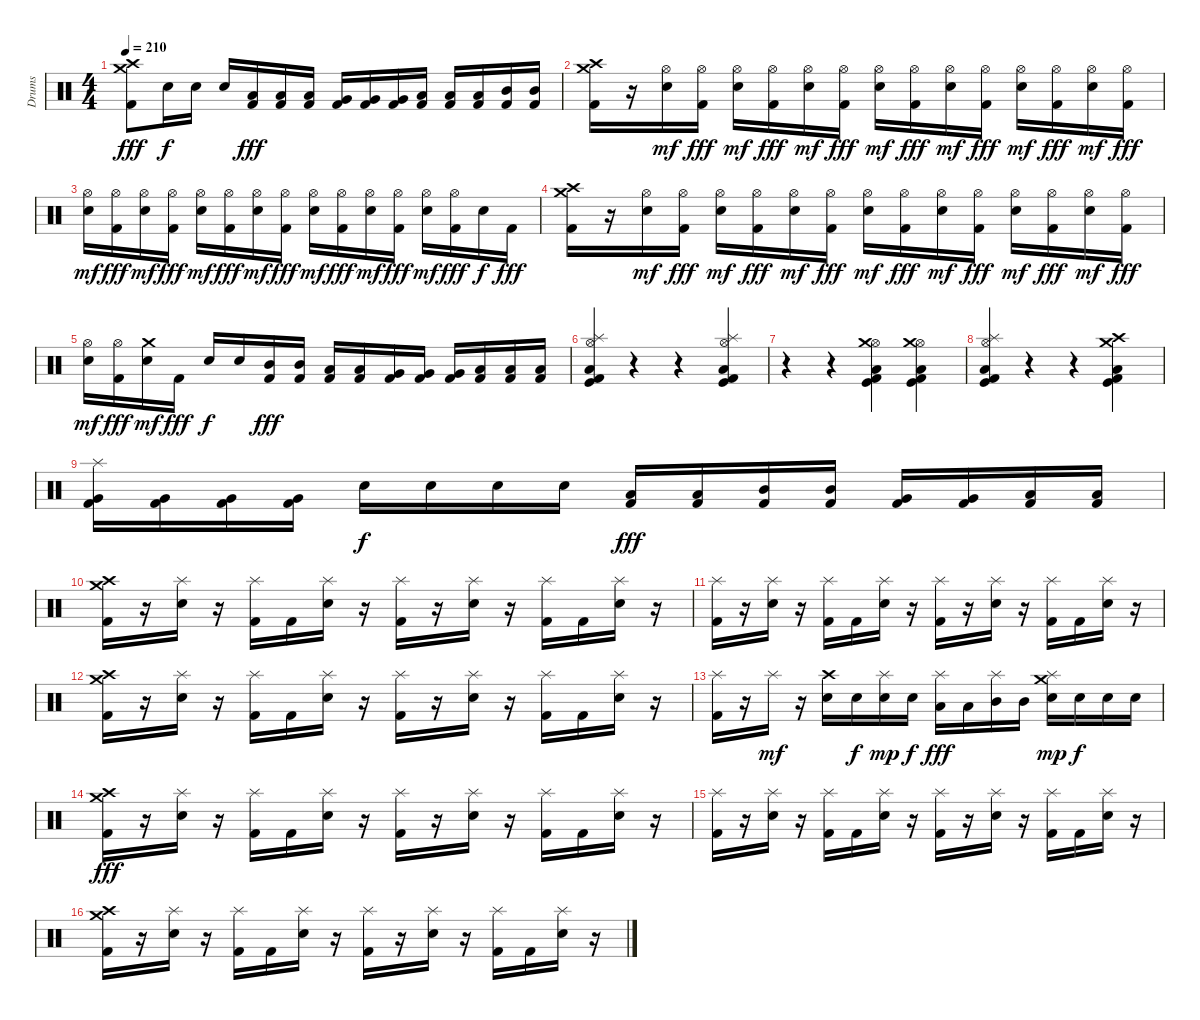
\track ("Drums" "Drums") {instrument percussion}
\staff {score}
\articulation defaults
\ts (4 4)
\tempo 210
\clef neutral
\ks c
("Crash medium (hit)" "Crash high (hit)" "Kick (hit) 2").8{dy fff} "Electric Snare (hit)".16{dy f} "Electric Snare (hit)".16 "Electric Snare (hit)".16 ("Low Floor Tom (hit)" "Kick (hit) 2").16{dy fff} ("Low Floor Tom (hit)" "Kick (hit) 2").16 ("Low Floor Tom (hit)" "Kick (hit) 2").16 ("Very Low Tom (hit)" "Kick (hit) 2").16 ("Very Low Tom (hit)" "Kick (hit) 2").16 ("Very Low Tom (hit)" "Kick (hit) 2").16 ("Low Tom (hit)" "Kick (hit) 2").16 ("Low Tom (hit)" "Kick (hit) 2").16 ("Low Tom (hit)" "Kick (hit) 2").16 ("Mid Tom (hit)" "Kick (hit) 2").16 ("Mid Tom (hit)" "Kick (hit) 2").16 |
("Crash medium (hit)" "Crash high (hit)" "Kick (hit) 2").16 r.16 ("Hi-Hat (open)" "Electric Snare (hit)").16{dy mf} ("Hi-Hat (open)" "Kick (hit) 2").16{dy fff} ("Hi-Hat (open)" "Electric Snare (hit)").16{dy mf} ("Hi-Hat (open)" "Kick (hit) 2").16{dy fff} ("Hi-Hat (open)" "Electric Snare (hit)").16{dy mf} ("Hi-Hat (open)" "Kick (hit) 2").16{dy fff} ("Hi-Hat (open)" "Electric Snare (hit)").16{dy mf} ("Hi-Hat (open)" "Kick (hit) 2").16{dy fff} ("Hi-Hat (open)" "Electric Snare (hit)").16{dy mf} ("Hi-Hat (open)" "Kick (hit) 2").16{dy fff} ("Hi-Hat (open)" "Electric Snare (hit)").16{dy mf} ("Hi-Hat (open)" "Kick (hit) 2").16{dy fff} ("Hi-Hat (open)" "Electric Snare (hit)").16{dy mf} ("Hi-Hat (open)" "Kick (hit) 2").16{dy fff} |
("Hi-Hat (open)" "Electric Snare (hit)").16{dy mf} ("Hi-Hat (open)" "Kick (hit) 2").16{dy fff} ("Hi-Hat (open)" "Electric Snare (hit)").16{dy mf} ("Hi-Hat (open)" "Kick (hit) 2").16{dy fff} ("Hi-Hat (open)" "Electric Snare (hit)").16{dy mf} ("Hi-Hat (open)" "Kick (hit) 2").16{dy fff} ("Hi-Hat (open)" "Electric Snare (hit)").16{dy mf} ("Hi-Hat (open)" "Kick (hit) 2").16{dy fff} ("Hi-Hat (open)" "Electric Snare (hit)").16{dy mf} ("Hi-Hat (open)" "Kick (hit) 2").16{dy fff} ("Hi-Hat (open)" "Electric Snare (hit)").16{dy mf} ("Hi-Hat (open)" "Kick (hit) 2").16{dy fff} ("Hi-Hat (open)" "Electric Snare (hit)").16{dy mf} ("Hi-Hat (open)" "Kick (hit) 2").16{dy fff} "Electric Snare (hit)".16{dy f} "Kick (hit) 2".16{dy fff} |
("Crash medium (hit)" "Crash high (hit)" "Kick (hit) 2").16 r.16 ("Hi-Hat (open)" "Electric Snare (hit)").16{dy mf} ("Hi-Hat (open)" "Kick (hit) 2").16{dy fff} ("Hi-Hat (open)" "Electric Snare (hit)").16{dy mf} ("Hi-Hat (open)" "Kick (hit) 2").16{dy fff} ("Hi-Hat (open)" "Electric Snare (hit)").16{dy mf} ("Hi-Hat (open)" "Kick (hit) 2").16{dy fff} ("Hi-Hat (open)" "Electric Snare (hit)").16{dy mf} ("Hi-Hat (open)" "Kick (hit) 2").16{dy fff} ("Hi-Hat (open)" "Electric Snare (hit)").16{dy mf} ("Hi-Hat (open)" "Kick (hit) 2").16{dy fff} ("Hi-Hat (open)" "Electric Snare (hit)").16{dy mf} ("Hi-Hat (open)" "Kick (hit) 2").16{dy fff} ("Hi-Hat (open)" "Electric Snare (hit)").16{dy mf} ("Hi-Hat (open)" "Kick (hit) 2").16{dy fff} |
("Hi-Hat (open)" "Electric Snare (hit)").16{dy mf} ("Hi-Hat (open)" "Kick (hit) 2").16{dy fff} ("Crash medium (hit)" "Electric Snare (hit)").16{dy mf} "Kick (hit) 2".16{dy fff} "Electric Snare (hit)".16{dy f} "Electric Snare (hit)".16 ("Mid Tom (hit)" "Kick (hit) 2").16{dy fff} ("Mid Tom (hit)" "Kick (hit) 2").16 ("Low Tom (hit)" "Kick (hit) 2").16 ("Low Tom (hit)" "Kick (hit) 2").16 ("Very Low Tom (hit)" "Kick (hit) 2").16 ("Very Low Tom (hit)" "Kick (hit) 2").16 ("Very Low Tom (hit)" "Kick (hit) 2").16 ("Low Floor Tom (hit)" "Kick (hit) 2").16 ("Low Floor Tom (hit)" "Kick (hit) 2").16 ("Low Floor Tom (hit)" "Kick (hit) 2").16 |
("Splash (hit)" "Hi-Hat (open)" "Low Floor Tom (hit)" "Kick (hit)" "Kick (hit) 2").4 r.4 r.4 ("Splash (hit)" "Hi-Hat (open)" "Low Floor Tom (hit)" "Kick (hit)" "Kick (hit) 2").4 |
r.4 r.4 ("Hi-Hat (open)" "Crash medium (hit)" "Low Floor Tom (hit)" "Kick (hit)" "Kick (hit) 2").4 ("Hi-Hat (open)" "Crash medium (hit)" "Low Floor Tom (hit)" "Kick (hit)" "Kick (hit) 2").4 |
("Splash (hit)" "Hi-Hat (open)" "Low Floor Tom (hit)" "Kick (hit)" "Kick (hit) 2").4 r.4 r.4 ("Crash high (hit)" "Crash medium (hit)" "Low Floor Tom (hit)" "Kick (hit)" "Kick (hit) 2").4 |
("Splash (hit)" "Very Low Tom (hit)" "Kick (hit) 2").16 ("Very Low Tom (hit)" "Kick (hit) 2").16 ("Very Low Tom (hit)" "Kick (hit) 2").16 ("Very Low Tom (hit)" "Kick (hit) 2").16 "Electric Snare (hit)".16{dy f} "Electric Snare (hit)".16 "Electric Snare (hit)".16 "Electric Snare (hit)".16 ("Low Tom (hit)" "Kick (hit) 2").16{dy fff} ("Low Tom (hit)" "Kick (hit) 2").16 ("Mid Tom (hit)" "Kick (hit) 2").16 ("Mid Tom (hit)" "Kick (hit) 2").16 ("Very Low Tom (hit)" "Kick (hit) 2").16 ("Very Low Tom (hit)" "Kick (hit) 2").16 ("Low Floor Tom (hit)" "Kick (hit) 2").16 ("Low Floor Tom (hit)" "Kick (hit) 2").16 |
("Crash medium (hit)" "Crash high (hit)" "Kick (hit) 2").16 r.16 ("Splash (hit)" "Electric Snare (hit)").16 r.16 ("Splash (hit)" "Kick (hit) 2").16 "Kick (hit) 2".16 ("Splash (hit)" "Electric Snare (hit)").16 r.16 ("Splash (hit)" "Kick (hit) 2").16 r.16 ("Splash (hit)" "Electric Snare (hit)").16 r.16 ("Splash (hit)" "Kick (hit) 2").16 "Kick (hit) 2".16 ("Splash (hit)" "Electric Snare (hit)").16 r.16 |
("Splash (hit)" "Kick (hit) 2").16 r.16 ("Splash (hit)" "Electric Snare (hit)").16 r.16 ("Splash (hit)" "Kick (hit) 2").16 "Kick (hit) 2".16 ("Splash (hit)" "Electric Snare (hit)").16 r.16 ("Splash (hit)" "Kick (hit) 2").16 r.16 ("Splash (hit)" "Electric Snare (hit)").16 r.16 ("Splash (hit)" "Kick (hit) 2").16 "Kick (hit) 2".16 ("Splash (hit)" "Electric Snare (hit)").16 r.16 |
("Crash medium (hit)" "Crash high (hit)" "Kick (hit) 2").16 r.16 ("Splash (hit)" "Electric Snare (hit)").16 r.16 ("Splash (hit)" "Kick (hit) 2").16 "Kick (hit) 2".16 ("Splash (hit)" "Electric Snare (hit)").16 r.16 ("Splash (hit)" "Kick (hit) 2").16 r.16 ("Splash (hit)" "Electric Snare (hit)").16 r.16 ("Splash (hit)" "Kick (hit) 2").16 "Kick (hit) 2".16 ("Splash (hit)" "Electric Snare (hit)").16 r.16 |
("Splash (hit)" "Kick (hit) 2").16 r.16 "Splash (hit)".16{dy mf} r.16 ("Crash high (hit)" "Electric Snare (hit)").16 "Electric Snare (hit)".16{dy f} ("Splash (hit)" "Electric Snare (hit)").16{dy mp} "Electric Snare (hit)".16{dy f} ("Splash (hit)" "Low Tom (hit)").16{dy fff} "Low Tom (hit)".16 ("Splash (hit)" "Mid Tom (hit)").16 "Mid Tom (hit)".16 ("Splash (hit)" "Crash medium (hit)" "Electric Snare (hit)").16{dy mp} "Electric Snare (hit)".16{dy f} "Electric Snare (hit)".16 "Electric Snare (hit)".16 |
("Crash medium (hit)" "Crash high (hit)" "Kick (hit) 2").16{dy fff} r.16 ("Splash (hit)" "Electric Snare (hit)").16 r.16 ("Splash (hit)" "Kick (hit) 2").16 "Kick (hit) 2".16 ("Splash (hit)" "Electric Snare (hit)").16 r.16 ("Splash (hit)" "Kick (hit) 2").16 r.16 ("Splash (hit)" "Electric Snare (hit)").16 r.16 ("Splash (hit)" "Kick (hit) 2").16 "Kick (hit) 2".16 ("Splash (hit)" "Electric Snare (hit)").16 r.16 |
("Splash (hit)" "Kick (hit) 2").16 r.16 ("Splash (hit)" "Electric Snare (hit)").16 r.16 ("Splash (hit)" "Kick (hit) 2").16 "Kick (hit) 2".16 ("Splash (hit)" "Electric Snare (hit)").16 r.16 ("Splash (hit)" "Kick (hit) 2").16 r.16 ("Splash (hit)" "Electric Snare (hit)").16 r.16 ("Splash (hit)" "Kick (hit) 2").16 "Kick (hit) 2".16 ("Splash (hit)" "Electric Snare (hit)").16 r.16 |
("Crash medium (hit)" "Crash high (hit)" "Kick (hit) 2").16 r.16 ("Splash (hit)" "Electric Snare (hit)").16 r.16 ("Splash (hit)" "Kick (hit) 2").16 "Kick (hit) 2".16 ("Splash (hit)" "Electric Snare (hit)").16 r.16 ("Splash (hit)" "Kick (hit) 2").16 r.16 ("Splash (hit)" "Electric Snare (hit)").16 r.16 ("Splash (hit)" "Kick (hit) 2").16 "Kick (hit) 2".16 ("Splash (hit)" "Electric Snare (hit)").16 r.16
